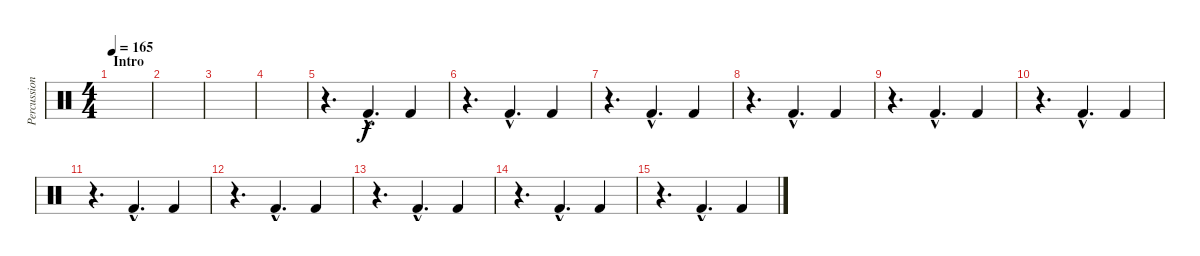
\track ("Percussion" "Percussion") {instrument percussion}
\staff {score}
\articulation defaults
\ts (4 4)
\section ("" "Intro")
\tempo 165
\clef neutral
\ks c
|
|
|
|
r.4{d} "Kick (hit) 2"{hac}.4{d} "Kick (hit) 2".4 |
r.4{d} "Kick (hit) 2"{hac}.4{d} "Kick (hit) 2".4 |
r.4{d} "Kick (hit) 2"{hac}.4{d} "Kick (hit) 2".4 |
r.4{d} "Kick (hit) 2"{hac}.4{d} "Kick (hit) 2".4 |
r.4{d} "Kick (hit) 2"{hac}.4{d} "Kick (hit) 2".4 |
r.4{d} "Kick (hit) 2"{hac}.4{d} "Kick (hit) 2".4 |
r.4{d} "Kick (hit) 2"{hac}.4{d} "Kick (hit) 2".4 |
r.4{d} "Kick (hit) 2"{hac}.4{d} "Kick (hit) 2".4 |
r.4{d} "Kick (hit) 2"{hac}.4{d} "Kick (hit) 2".4 |
r.4{d} "Kick (hit) 2"{hac}.4{d} "Kick (hit) 2".4 |
r.4{d} "Kick (hit) 2"{hac}.4{d} "Kick (hit) 2".4
